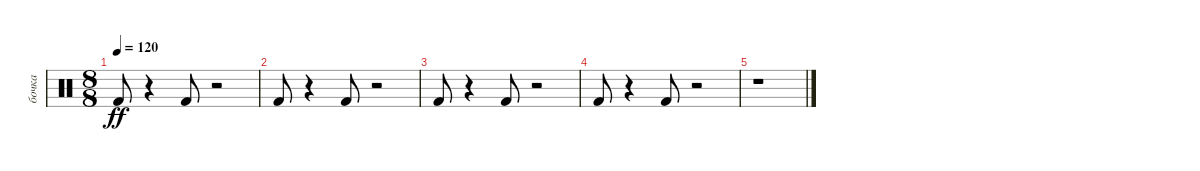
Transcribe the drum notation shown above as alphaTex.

\track ("бочка" "бочка") {instrument percussion}
\staff {score}
\articulation defaults
\ts (8 8)
\tempo 120
\clef neutral
\ks c "Kick (hit) 2".8{dy ff}
r.4 "Kick (hit) 2".8 r.2 |
"Kick (hit) 2".8{volume 15} r.4 "Kick (hit) 2".8{volume 14} r.2 |
"Kick (hit) 2".8{volume 12} r.4 "Kick (hit) 2".8{volume 10} r.2 |
"Kick (hit) 2".8{volume 8} r.4 "Kick (hit) 2".8{volume 6} r.2 |
r.1
